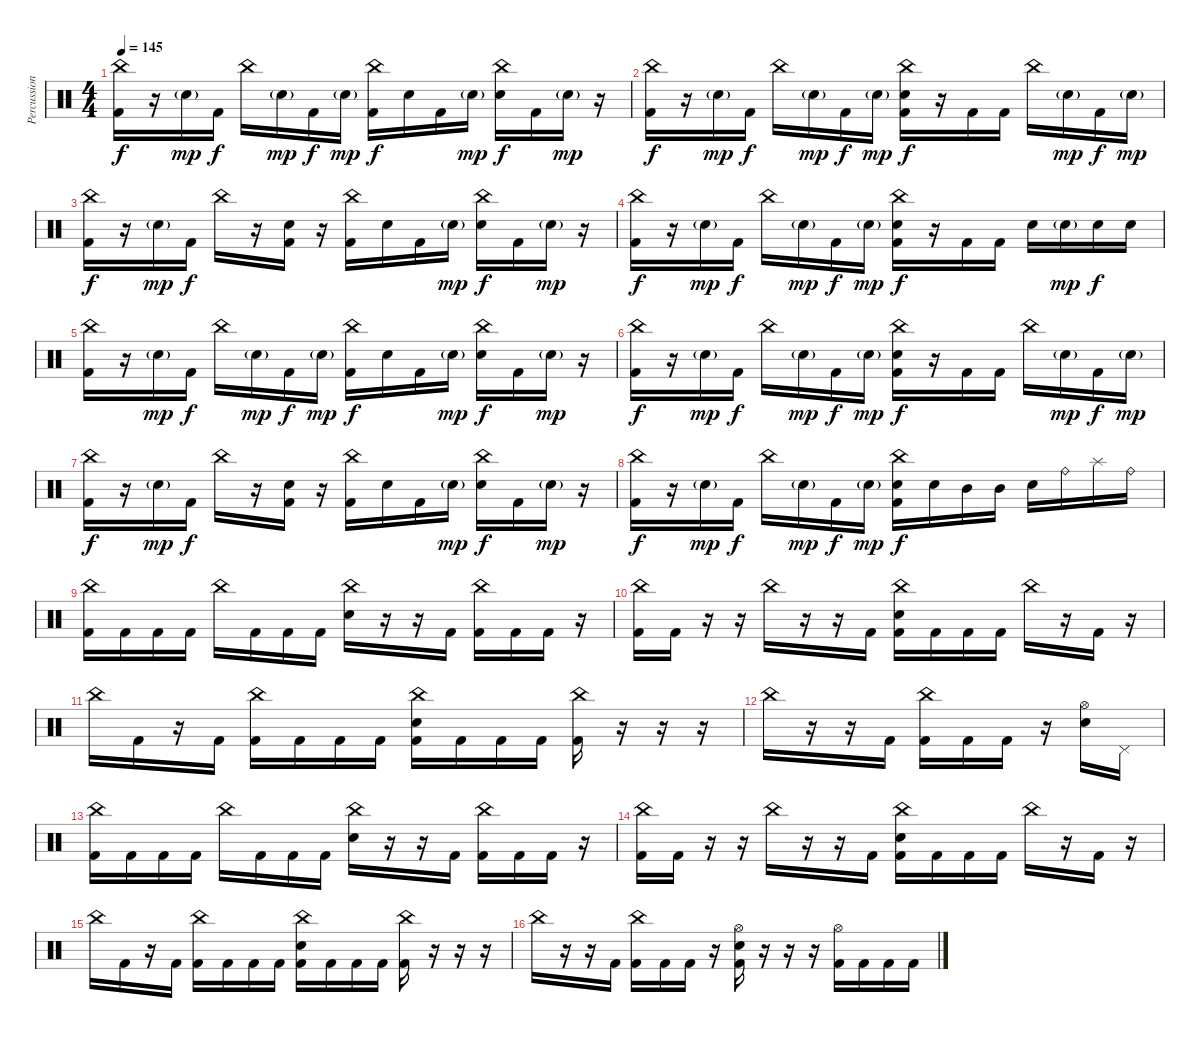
\track ("Percussion" "Percussion") {instrument percussion}
\staff {score}
\articulation defaults
\ts (4 4)
\tempo 145
\clef neutral
\ks c
("China (hit)" "Kick (hit) 2").16{dy f} r.16 "Electric Snare (hit)"{g}.16{dy mp} "Kick (hit) 2".16{dy f} "China (hit)".16 "Electric Snare (hit)"{g}.16{dy mp} "Kick (hit) 2".16{dy f} "Electric Snare (hit)"{g}.16{dy mp} ("China (hit)" "Kick (hit) 2").16{dy f} "Electric Snare (hit)".16 "Kick (hit) 2".16 "Electric Snare (hit)"{g}.16{dy mp} ("China (hit)" "Electric Snare (hit)").16{dy f} "Kick (hit) 2".16 "Electric Snare (hit)"{g}.16{dy mp} r.16 |
("China (hit)" "Kick (hit) 2").16{dy f} r.16 "Electric Snare (hit)"{g}.16{dy mp} "Kick (hit) 2".16{dy f} "China (hit)".16 "Electric Snare (hit)"{g}.16{dy mp} "Kick (hit) 2".16{dy f} "Electric Snare (hit)"{g}.16{dy mp} ("China (hit)" "Electric Snare (hit)" "Kick (hit) 2").16{dy f} r.16 "Kick (hit) 2".16 "Kick (hit) 2".16 "China (hit)".16 "Electric Snare (hit)"{g}.16{dy mp} "Kick (hit) 2".16{dy f} "Electric Snare (hit)"{g}.16{dy mp} |
("China (hit)" "Kick (hit) 2").16{dy f} r.16 "Electric Snare (hit)"{g}.16{dy mp} "Kick (hit) 2".16{dy f} "China (hit)".16 r.16 ("Electric Snare (hit)" "Kick (hit) 2").16 r.16 ("China (hit)" "Kick (hit) 2").16 "Electric Snare (hit)".16 "Kick (hit) 2".16 "Electric Snare (hit)"{g}.16{dy mp} ("China (hit)" "Electric Snare (hit)").16{dy f} "Kick (hit) 2".16 "Electric Snare (hit)"{g}.16{dy mp} r.16 |
("China (hit)" "Kick (hit) 2").16{dy f} r.16 "Electric Snare (hit)"{g}.16{dy mp} "Kick (hit) 2".16{dy f} "China (hit)".16 "Electric Snare (hit)"{g}.16{dy mp} "Kick (hit) 2".16{dy f} "Electric Snare (hit)"{g}.16{dy mp} ("China (hit)" "Electric Snare (hit)" "Kick (hit) 2").16{dy f} r.16 "Kick (hit) 2".16 "Kick (hit) 2".16 "Electric Snare (hit)".16 "Electric Snare (hit)"{g}.16{dy mp} "Electric Snare (hit)".16{dy f} "Electric Snare (hit)".16 |
("China (hit)" "Kick (hit) 2").16 r.16 "Electric Snare (hit)"{g}.16{dy mp} "Kick (hit) 2".16{dy f} "China (hit)".16 "Electric Snare (hit)"{g}.16{dy mp} "Kick (hit) 2".16{dy f} "Electric Snare (hit)"{g}.16{dy mp} ("China (hit)" "Kick (hit) 2").16{dy f} "Electric Snare (hit)".16 "Kick (hit) 2".16 "Electric Snare (hit)"{g}.16{dy mp} ("China (hit)" "Electric Snare (hit)").16{dy f} "Kick (hit) 2".16 "Electric Snare (hit)"{g}.16{dy mp} r.16 |
("China (hit)" "Kick (hit) 2").16{dy f} r.16 "Electric Snare (hit)"{g}.16{dy mp} "Kick (hit) 2".16{dy f} "China (hit)".16 "Electric Snare (hit)"{g}.16{dy mp} "Kick (hit) 2".16{dy f} "Electric Snare (hit)"{g}.16{dy mp} ("China (hit)" "Electric Snare (hit)" "Kick (hit) 2").16{dy f} r.16 "Kick (hit) 2".16 "Kick (hit) 2".16 "China (hit)".16 "Electric Snare (hit)"{g}.16{dy mp} "Kick (hit) 2".16{dy f} "Electric Snare (hit)"{g}.16{dy mp} |
("China (hit)" "Kick (hit) 2").16{dy f} r.16 "Electric Snare (hit)"{g}.16{dy mp} "Kick (hit) 2".16{dy f} "China (hit)".16 r.16 ("Electric Snare (hit)" "Kick (hit) 2").16 r.16 ("China (hit)" "Kick (hit) 2").16 "Electric Snare (hit)".16 "Kick (hit) 2".16 "Electric Snare (hit)"{g}.16{dy mp} ("China (hit)" "Electric Snare (hit)").16{dy f} "Kick (hit) 2".16 "Electric Snare (hit)"{g}.16{dy mp} r.16 |
("China (hit)" "Kick (hit) 2").16{dy f} r.16 "Electric Snare (hit)"{g}.16{dy mp} "Kick (hit) 2".16{dy f} "China (hit)".16 "Electric Snare (hit)"{g}.16{dy mp} "Kick (hit) 2".16{dy f} "Electric Snare (hit)"{g}.16{dy mp} ("China (hit)" "Electric Snare (hit)" "Kick (hit) 2").16{dy f} "Electric Snare (hit)".16 "Mid Tom (hit)".16 "Mid Tom (hit)".16 "Electric Snare (hit)".16 "Ride (bell)".16 "Splash (hit)".16 "Ride (bell)".16 |
("China (hit)" "Kick (hit) 2").16 "Kick (hit) 2".16 "Kick (hit) 2".16 "Kick (hit) 2".16 "China (hit)".16 "Kick (hit) 2".16 "Kick (hit) 2".16 "Kick (hit) 2".16 ("China (hit)" "Electric Snare (hit)").16 r.16 r.16 "Kick (hit) 2".16 ("China (hit)" "Kick (hit) 2").16 "Kick (hit) 2".16 "Kick (hit) 2".16 r.16 |
("China (hit)" "Kick (hit) 2").16 "Kick (hit) 2".16 r.16 r.16 "China (hit)".16 r.16 r.16 "Kick (hit) 2".16 ("China (hit)" "Electric Snare (hit)" "Kick (hit) 2").16 "Kick (hit) 2".16 "Kick (hit) 2".16 "Kick (hit) 2".16 "China (hit)".16 r.16 "Kick (hit) 2".16 r.16 |
"China (hit)".16 "Kick (hit) 2".16 r.16 "Kick (hit) 2".16 ("China (hit)" "Kick (hit) 2").16 "Kick (hit) 2".16 "Kick (hit) 2".16 "Kick (hit) 2".16 ("China (hit)" "Electric Snare (hit)" "Kick (hit) 2").16 "Kick (hit) 2".16 "Kick (hit) 2".16 "Kick (hit) 2".16 ("China (hit)" "Kick (hit) 2").16 r.16 r.16 r.16 |
"China (hit)".16 r.16 r.16 "Kick (hit) 2".16 ("China (hit)" "Kick (hit) 2").16 "Kick (hit) 2".16 "Kick (hit) 2".16 r.16 ("Hi-Hat (open)" "Electric Snare (hit)").16 "Pedal Hi-Hat (hit)".16 |
("China (hit)" "Kick (hit) 2").16 "Kick (hit) 2".16 "Kick (hit) 2".16 "Kick (hit) 2".16 "China (hit)".16 "Kick (hit) 2".16 "Kick (hit) 2".16 "Kick (hit) 2".16 ("China (hit)" "Electric Snare (hit)").16 r.16 r.16 "Kick (hit) 2".16 ("China (hit)" "Kick (hit) 2").16 "Kick (hit) 2".16 "Kick (hit) 2".16 r.16 |
("China (hit)" "Kick (hit) 2").16 "Kick (hit) 2".16 r.16 r.16 "China (hit)".16 r.16 r.16 "Kick (hit) 2".16 ("China (hit)" "Electric Snare (hit)" "Kick (hit) 2").16 "Kick (hit) 2".16 "Kick (hit) 2".16 "Kick (hit) 2".16 "China (hit)".16 r.16 "Kick (hit) 2".16 r.16 |
"China (hit)".16 "Kick (hit) 2".16 r.16 "Kick (hit) 2".16 ("China (hit)" "Kick (hit) 2").16 "Kick (hit) 2".16 "Kick (hit) 2".16 "Kick (hit) 2".16 ("China (hit)" "Electric Snare (hit)" "Kick (hit) 2").16 "Kick (hit) 2".16 "Kick (hit) 2".16 "Kick (hit) 2".16 ("China (hit)" "Kick (hit) 2").16 r.16 r.16 r.16 |
"China (hit)".16 r.16 r.16 "Kick (hit) 2".16 ("China (hit)" "Kick (hit) 2").16 "Kick (hit) 2".16 "Kick (hit) 2".16 r.16 ("Hi-Hat (open)" "Electric Snare (hit)" "Kick (hit) 2").16 r.16 r.16 r.16 ("Hi-Hat (open)" "Kick (hit) 2").16 "Kick (hit) 2".16 "Kick (hit) 2".16 "Kick (hit) 2".16
